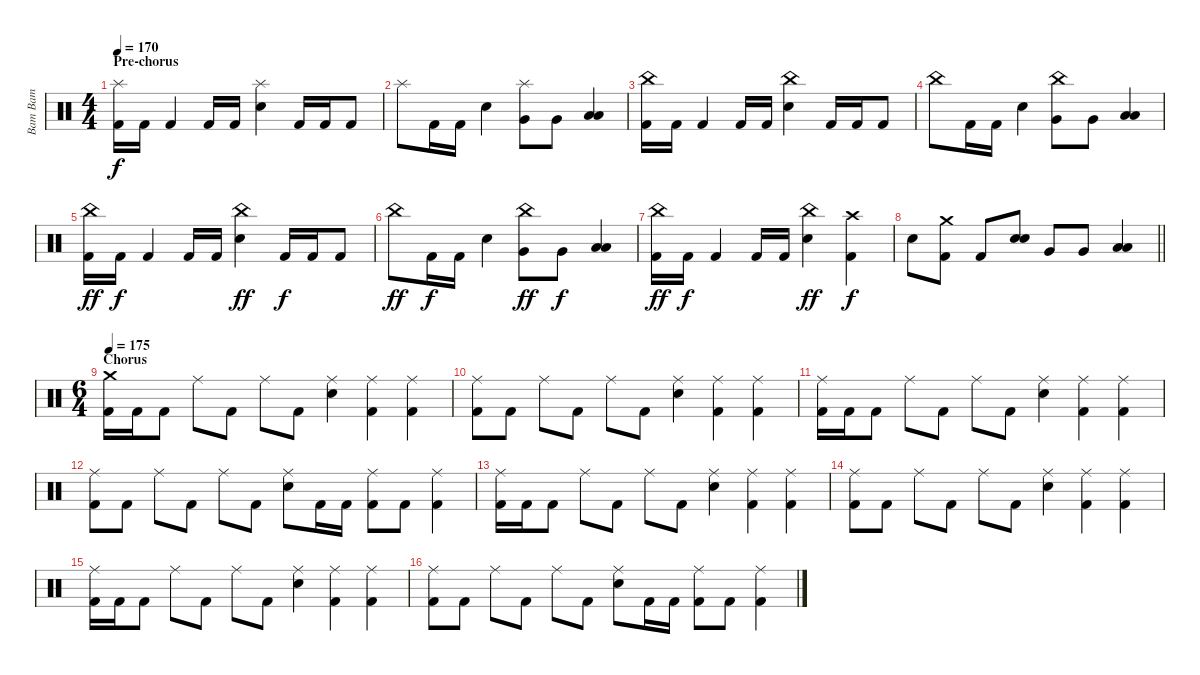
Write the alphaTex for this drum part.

\track ("Bam Bam" "Bam Bam") {instrument percussion}
\staff {score}
\articulation defaults
\ts (4 4)
\section ("" "Pre-chorus")
\tempo 170
\clef neutral
\ks c
("Splash (hit)" "Kick (hit) 2").16{dy f} "Kick (hit) 2".16 "Kick (hit) 2".4 "Kick (hit) 2".16 "Kick (hit) 2".16 ("Splash (hit)" "Electric Snare (hit)").4 "Kick (hit) 2".16 "Kick (hit) 2".16 "Kick (hit) 2".8 |
"Splash (hit)".8 "Kick (hit) 2".16 "Kick (hit) 2".16 "Electric Snare (hit)".4 ("Splash (hit)" "Very Low Tom (hit)").8 "Very Low Tom (hit)".8 ("Low Floor Tom (hit)" "Low Floor Tom (hit)").4 |
("China (hit)" "Kick (hit) 2").16 "Kick (hit) 2".16 "Kick (hit) 2".4 "Kick (hit) 2".16 "Kick (hit) 2".16 ("China (hit)" "Electric Snare (hit)").4 "Kick (hit) 2".16 "Kick (hit) 2".16 "Kick (hit) 2".8 |
"China (hit)".8 "Kick (hit) 2".16 "Kick (hit) 2".16 "Electric Snare (hit)".4 ("China (hit)" "Very Low Tom (hit)").8 "Very Low Tom (hit)".8 ("Low Floor Tom (hit)" "Low Floor Tom (hit)").4 |
("China (hit)" "Kick (hit) 2").16{dy ff} "Kick (hit) 2".16{dy f} "Kick (hit) 2".4 "Kick (hit) 2".16 "Kick (hit) 2".16 ("China (hit)" "Electric Snare (hit)").4{dy ff} "Kick (hit) 2".16{dy f} "Kick (hit) 2".16 "Kick (hit) 2".8 |
"China (hit)".8{dy ff} "Kick (hit) 2".16{dy f} "Kick (hit) 2".16 "Electric Snare (hit)".4 ("China (hit)" "Very Low Tom (hit)").8{dy ff} "Very Low Tom (hit)".8{dy f} ("Low Floor Tom (hit)" "Low Floor Tom (hit)").4 |
("China (hit)" "Kick (hit) 2").16{dy ff} "Kick (hit) 2".16{dy f} "Kick (hit) 2".4 "Kick (hit) 2".16 "Kick (hit) 2".16 ("China (hit)" "Electric Snare (hit)").4{dy ff} ("Crash high (hit)" "Kick (hit) 2").4{dy f} |
\barLineRight lightlight "Electric Snare (hit)".8
("Crash medium (hit)" "Kick (hit) 2").8 "Kick (hit) 2".8 ("Electric Snare (hit)" "Electric Snare (hit)").8{bd 120} "Very Low Tom (hit)".8 "Very Low Tom (hit)".8 ("Low Floor Tom (hit)" "Low Floor Tom (hit)").4 |
\ts (6 4)
\section ("" "Chorus")
\tempo 175
("Crash medium (hit)" "Kick (hit) 2").16 "Kick (hit) 2".16 "Kick (hit) 2".8 "Ride (middle)".8 "Kick (hit) 2".8 "Ride (middle)".8 "Kick (hit) 2".8 ("Ride (middle)" "Electric Snare (hit)").4 ("Ride (middle)" "Kick (hit) 2").4 ("Ride (middle)" "Kick (hit) 2").4 |
("Ride (middle)" "Kick (hit) 2").8 "Kick (hit) 2".8 "Ride (middle)".8 "Kick (hit) 2".8 "Ride (middle)".8 "Kick (hit) 2".8 ("Ride (middle)" "Electric Snare (hit)").4 ("Ride (middle)" "Kick (hit) 2").4 ("Ride (middle)" "Kick (hit) 2").4 |
("Ride (middle)" "Kick (hit) 2").16 "Kick (hit) 2".16 "Kick (hit) 2".8 "Ride (middle)".8 "Kick (hit) 2".8 "Ride (middle)".8 "Kick (hit) 2".8 ("Ride (middle)" "Electric Snare (hit)").4 ("Ride (middle)" "Kick (hit) 2").4 ("Ride (middle)" "Kick (hit) 2").4 |
("Ride (middle)" "Kick (hit) 2").8 "Kick (hit) 2".8 "Ride (middle)".8 "Kick (hit) 2".8 "Ride (middle)".8 "Kick (hit) 2".8 ("Ride (middle)" "Electric Snare (hit)").8 "Kick (hit) 2".16 "Kick (hit) 2".16 ("Ride (middle)" "Kick (hit) 2").8 "Kick (hit) 2".8 ("Ride (middle)" "Kick (hit) 2").4 |
("Ride (middle)" "Kick (hit) 2").16 "Kick (hit) 2".16 "Kick (hit) 2".8 "Ride (middle)".8 "Kick (hit) 2".8 "Ride (middle)".8 "Kick (hit) 2".8 ("Ride (middle)" "Electric Snare (hit)").4 ("Ride (middle)" "Kick (hit) 2").4 ("Ride (middle)" "Kick (hit) 2").4 |
("Ride (middle)" "Kick (hit) 2").8 "Kick (hit) 2".8 "Ride (middle)".8 "Kick (hit) 2".8 "Ride (middle)".8 "Kick (hit) 2".8 ("Ride (middle)" "Electric Snare (hit)").4 ("Ride (middle)" "Kick (hit) 2").4 ("Ride (middle)" "Kick (hit) 2").4 |
("Ride (middle)" "Kick (hit) 2").16 "Kick (hit) 2".16 "Kick (hit) 2".8 "Ride (middle)".8 "Kick (hit) 2".8 "Ride (middle)".8 "Kick (hit) 2".8 ("Ride (middle)" "Electric Snare (hit)").4 ("Ride (middle)" "Kick (hit) 2").4 ("Ride (middle)" "Kick (hit) 2").4 |
("Ride (middle)" "Kick (hit) 2").8 "Kick (hit) 2".8 "Ride (middle)".8 "Kick (hit) 2".8 "Ride (middle)".8 "Kick (hit) 2".8 ("Ride (middle)" "Electric Snare (hit)").8 "Kick (hit) 2".16 "Kick (hit) 2".16 ("Ride (middle)" "Kick (hit) 2").8 "Kick (hit) 2".8 ("Ride (middle)" "Kick (hit) 2").4
